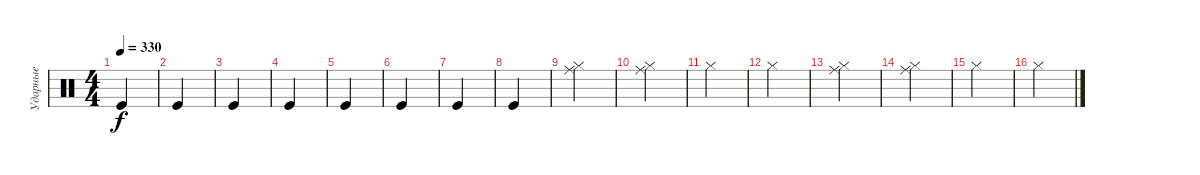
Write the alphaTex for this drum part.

\track ("Ударные" "Ударные") {instrument percussion}
\staff {score}
\articulation defaults
\ts (4 4)
\tempo 330
\clef neutral
\ks c "Kick (hit)".4{dy f}
|
"Kick (hit)".4 |
"Kick (hit)".4 |
"Kick (hit)".4 |
"Kick (hit)".4 |
"Kick (hit)".4 |
"Kick (hit)".4 |
"Kick (hit)".4 |
("Hi-Hat (closed)" "Ride (middle)").4 |
("Hi-Hat (closed)" "Ride (middle)").4 |
"Hi-Hat (closed)".4 |
"Hi-Hat (closed)".4 |
("Hi-Hat (closed)" "Ride (middle)").4 |
("Hi-Hat (closed)" "Ride (middle)").4 |
"Hi-Hat (closed)".4 |
"Hi-Hat (closed)".4
